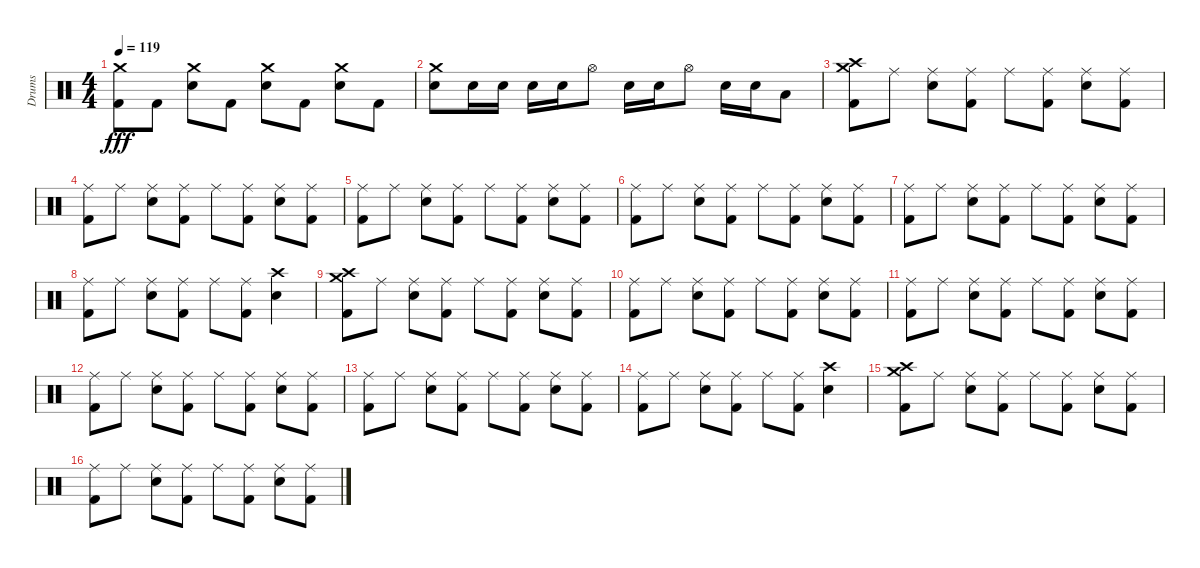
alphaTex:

\track ("Drums" "Drums") {instrument percussion}
\staff {score}
\articulation defaults
\ts (4 4)
\tempo 119
\clef neutral
\ks c
("Crash medium (hit)" "Kick (hit) 2").8{dy fff} "Kick (hit) 2".8 ("Crash medium (hit)" "Snare (hit) 2").8 "Kick (hit) 2".8 ("Crash medium (hit)" "Snare (hit) 2").8 "Kick (hit) 2".8 ("Crash medium (hit)" "Snare (hit) 2").8 "Kick (hit) 2".8 |
("Crash medium (hit)" "Snare (hit) 2").8 "Snare (hit) 2".16 "Snare (hit) 2".16 "Snare (hit) 2".16 "Snare (hit) 2".16 "Hi-Hat (open)".8 "Snare (hit) 2".16 "Snare (hit) 2".16 "Hi-Hat (open)".8 "Snare (hit) 2".16 "Snare (hit) 2".16 "Low Tom (hit)".8 |
("Crash high (hit)" "Crash medium (hit)" "Kick (hit) 2").8 "Ride (middle)".8 ("Ride (middle)" "Snare (hit) 2").8 ("Ride (middle)" "Kick (hit) 2").8 "Ride (middle)".8 ("Ride (middle)" "Kick (hit) 2").8 ("Ride (middle)" "Snare (hit) 2").8 ("Ride (middle)" "Kick (hit) 2").8 |
("Ride (middle)" "Kick (hit) 2").8 "Ride (middle)".8 ("Ride (middle)" "Snare (hit) 2").8 ("Ride (middle)" "Kick (hit) 2").8 "Ride (middle)".8 ("Ride (middle)" "Kick (hit) 2").8 ("Ride (middle)" "Snare (hit) 2").8 ("Ride (middle)" "Kick (hit) 2").8 |
("Ride (middle)" "Kick (hit) 2").8 "Ride (middle)".8 ("Ride (middle)" "Snare (hit) 2").8 ("Ride (middle)" "Kick (hit) 2").8 "Ride (middle)".8 ("Ride (middle)" "Kick (hit) 2").8 ("Ride (middle)" "Snare (hit) 2").8 ("Ride (middle)" "Kick (hit) 2").8 |
("Ride (middle)" "Kick (hit) 2").8 "Ride (middle)".8 ("Ride (middle)" "Snare (hit) 2").8 ("Ride (middle)" "Kick (hit) 2").8 "Ride (middle)".8 ("Ride (middle)" "Kick (hit) 2").8 ("Ride (middle)" "Snare (hit) 2").8 ("Ride (middle)" "Kick (hit) 2").8 |
("Ride (middle)" "Kick (hit) 2").8 "Ride (middle)".8 ("Ride (middle)" "Snare (hit) 2").8 ("Ride (middle)" "Kick (hit) 2").8 "Ride (middle)".8 ("Ride (middle)" "Kick (hit) 2").8 ("Ride (middle)" "Snare (hit) 2").8 ("Ride (middle)" "Kick (hit) 2").8 |
("Ride (middle)" "Kick (hit) 2").8 "Ride (middle)".8 ("Ride (middle)" "Snare (hit) 2").8 ("Ride (middle)" "Kick (hit) 2").8 "Ride (middle)".8 ("Ride (middle)" "Kick (hit) 2").8 ("Crash high (hit)" "Snare (hit) 2").4 |
("Crash high (hit)" "Crash medium (hit)" "Kick (hit) 2").8 "Ride (middle)".8 ("Ride (middle)" "Snare (hit) 2").8 ("Ride (middle)" "Kick (hit) 2").8 "Ride (middle)".8 ("Ride (middle)" "Kick (hit) 2").8 ("Ride (middle)" "Snare (hit) 2").8 ("Ride (middle)" "Kick (hit) 2").8 |
("Ride (middle)" "Kick (hit) 2").8 "Ride (middle)".8 ("Ride (middle)" "Snare (hit) 2").8 ("Ride (middle)" "Kick (hit) 2").8 "Ride (middle)".8 ("Ride (middle)" "Kick (hit) 2").8 ("Ride (middle)" "Snare (hit) 2").8 ("Ride (middle)" "Kick (hit) 2").8 |
("Ride (middle)" "Kick (hit) 2").8 "Ride (middle)".8 ("Ride (middle)" "Snare (hit) 2").8 ("Ride (middle)" "Kick (hit) 2").8 "Ride (middle)".8 ("Ride (middle)" "Kick (hit) 2").8 ("Ride (middle)" "Snare (hit) 2").8 ("Ride (middle)" "Kick (hit) 2").8 |
("Ride (middle)" "Kick (hit) 2").8 "Ride (middle)".8 ("Ride (middle)" "Snare (hit) 2").8 ("Ride (middle)" "Kick (hit) 2").8 "Ride (middle)".8 ("Ride (middle)" "Kick (hit) 2").8 ("Ride (middle)" "Snare (hit) 2").8 ("Ride (middle)" "Kick (hit) 2").8 |
("Ride (middle)" "Kick (hit) 2").8 "Ride (middle)".8 ("Ride (middle)" "Snare (hit) 2").8 ("Ride (middle)" "Kick (hit) 2").8 "Ride (middle)".8 ("Ride (middle)" "Kick (hit) 2").8 ("Ride (middle)" "Snare (hit) 2").8 ("Ride (middle)" "Kick (hit) 2").8 |
("Ride (middle)" "Kick (hit) 2").8 "Ride (middle)".8 ("Ride (middle)" "Snare (hit) 2").8 ("Ride (middle)" "Kick (hit) 2").8 "Ride (middle)".8 ("Ride (middle)" "Kick (hit) 2").8 ("Crash high (hit)" "Snare (hit) 2").4 |
("Crash high (hit)" "Crash medium (hit)" "Kick (hit) 2").8 "Ride (middle)".8 ("Ride (middle)" "Snare (hit) 2").8 ("Ride (middle)" "Kick (hit) 2").8 "Ride (middle)".8 ("Ride (middle)" "Kick (hit) 2").8 ("Ride (middle)" "Snare (hit) 2").8 ("Ride (middle)" "Kick (hit) 2").8 |
("Ride (middle)" "Kick (hit) 2").8 "Ride (middle)".8 ("Ride (middle)" "Snare (hit) 2").8 ("Ride (middle)" "Kick (hit) 2").8 "Ride (middle)".8 ("Ride (middle)" "Kick (hit) 2").8 ("Ride (middle)" "Snare (hit) 2").8 ("Ride (middle)" "Kick (hit) 2").8
